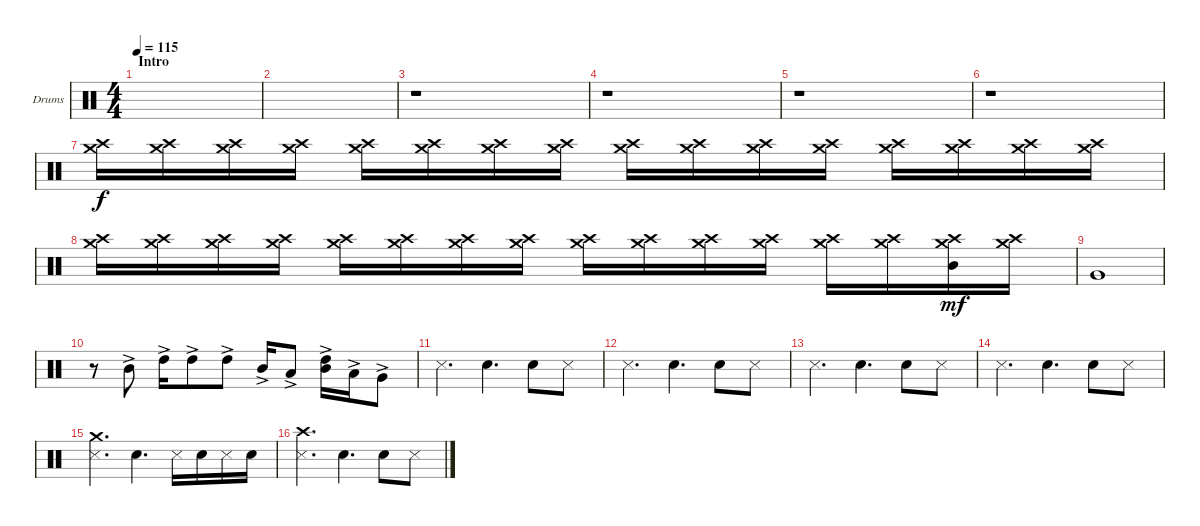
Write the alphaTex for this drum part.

\defaultSystemsLayout 4
\bracketExtendMode groupsimilarinstruments
\firstSystemTrackNameOrientation horizontal
\otherSystemsTrackNameOrientation horizontal
\track ("Drumkit" "Drums") {instrument percussion}
\staff {score}
\articulation defaults
\ts (4 4)
\section ("" "Intro")
\tempo 115
\clef neutral
\ks c
|
|
\scale
0.472222 r.1 |
\scale
0.263889 r.1 |
\scale
0.263889 r.1 |
r.1 |
("Crash high (hit)" "Crash medium (hit)").16 ("Crash medium (hit)" "Crash high (hit)").16 ("Crash high (hit)" "Crash medium (hit)").16 ("Crash medium (hit)" "Crash high (hit)").16 ("Crash high (hit)" "Crash medium (hit)").16 ("Crash medium (hit)" "Crash high (hit)").16 ("Crash high (hit)" "Crash medium (hit)").16 ("Crash medium (hit)" "Crash high (hit)").16 ("Crash high (hit)" "Crash medium (hit)").16 ("Crash medium (hit)" "Crash high (hit)").16 ("Crash high (hit)" "Crash medium (hit)").16 ("Crash medium (hit)" "Crash high (hit)").16 ("Crash high (hit)" "Crash medium (hit)").16 ("Crash medium (hit)" "Crash high (hit)").16 ("Crash high (hit)" "Crash medium (hit)").16 ("Crash medium (hit)" "Crash high (hit)").16 |
("Crash high (hit)" "Crash medium (hit)").16 ("Crash medium (hit)" "Crash high (hit)").16 ("Crash high (hit)" "Crash medium (hit)").16 ("Crash medium (hit)" "Crash high (hit)").16 ("Crash high (hit)" "Crash medium (hit)").16 ("Crash medium (hit)" "Crash high (hit)").16 ("Crash high (hit)" "Crash medium (hit)").16 ("Crash medium (hit)" "Crash high (hit)").16 ("Crash high (hit)" "Crash medium (hit)").16 ("Crash medium (hit)" "Crash high (hit)").16 ("Crash high (hit)" "Crash medium (hit)").16 ("Crash medium (hit)" "Crash high (hit)").16 ("Crash high (hit)" "Crash medium (hit)").16 ("Crash medium (hit)" "Crash high (hit)").16 ("Crash high (hit)" "Mid Tom (hit)" "Crash medium (hit)").16{dy mf} ("Crash medium (hit)" "Crash high (hit)").16 |
"Very Low Tom (hit)".1 |
r.8 "Mid Tom (hit)"{ac}.8 "High Tom (hit)"{ac}.16 "High Tom (hit)"{ac}.8 "High Tom (hit)"{ac}.8 "Mid Tom (hit)"{ac}.16 "Low Tom (hit)"{ac}.8 ("High Tom (hit)"{ac} "Mid Tom (hit)"{ac}).16 "Low Tom (hit)"{ac}.16 "Very Low Tom (hit)"{ac}.8 |
"Snare (side stick) 3".4{d} "Snare (hit) 2".4{d} "Snare (hit) 2".8 "Snare (side stick) 3".8 |
"Snare (side stick) 3".4{d} "Snare (hit) 2".4{d} "Snare (hit) 2".8 "Snare (side stick) 3".8 |
"Snare (side stick) 3".4{d} "Snare (hit) 2".4{d} "Snare (hit) 2".8 "Snare (side stick) 3".8 |
"Snare (side stick) 3".4{d} "Snare (hit) 2".4{d} "Snare (hit) 2".8 "Snare (side stick) 3".8 |
("Crash medium (hit)" "Snare (side stick) 3").4{d} "Snare (hit) 2".4{d} "Snare (side stick) 3".16 "Snare (hit) 2".16 "Snare (side stick) 3".16 "Snare (hit) 2".16 |
("Snare (side stick) 3" "Crash high (hit)").4{d} "Snare (hit) 2".4{d} "Snare (hit) 2".8 "Snare (side stick) 3".8
